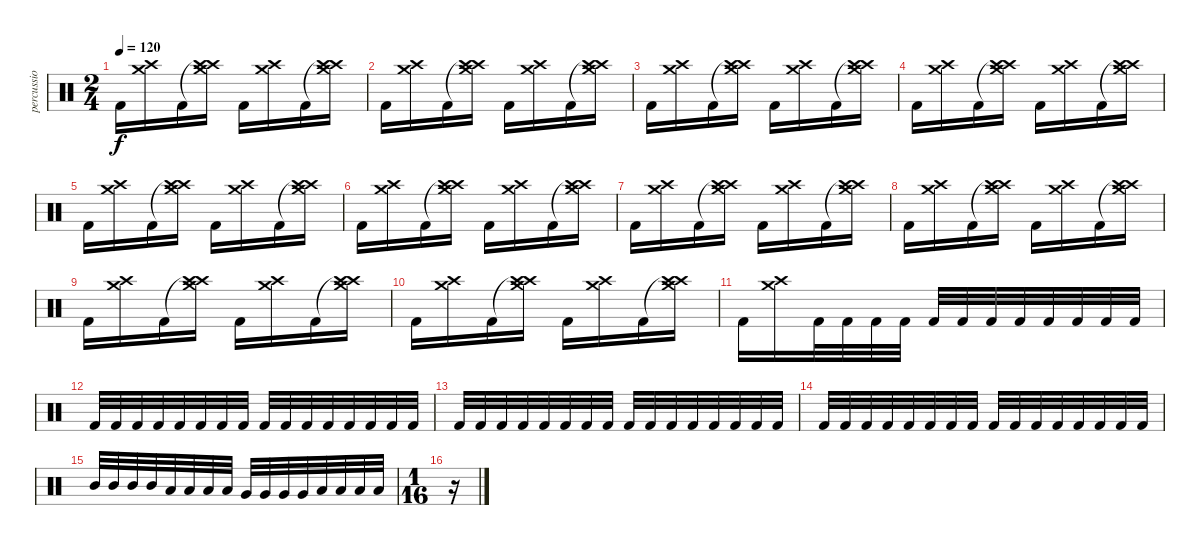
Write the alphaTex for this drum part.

\track (" percussion 1" " percussio") {instrument percussion}
\staff {score}
\articulation defaults
\ts (2 4)
\tempo 120
\clef neutral
\ks c "Kick (hit) 2".16{dy f}
("Crash high (hit)" "Crash medium (hit)").16 "Kick (hit) 2".16 ("Crash high (hit)"{t} "Crash high (hit)" "Crash medium (hit)").16 "Kick (hit) 2".16 ("Crash high (hit)" "Crash medium (hit)").16 "Kick (hit) 2".16 ("Crash high (hit)"{t} "Crash high (hit)" "Crash medium (hit)").16 |
"Kick (hit) 2".16 ("Crash high (hit)" "Crash medium (hit)").16 "Kick (hit) 2".16 ("Crash high (hit)"{t} "Crash high (hit)" "Crash medium (hit)").16 "Kick (hit) 2".16 ("Crash high (hit)" "Crash medium (hit)").16 "Kick (hit) 2".16 ("Crash high (hit)"{t} "Crash high (hit)" "Crash medium (hit)").16 |
"Kick (hit) 2".16 ("Crash high (hit)" "Crash medium (hit)").16 "Kick (hit) 2".16 ("Crash high (hit)"{t} "Crash high (hit)" "Crash medium (hit)").16 "Kick (hit) 2".16 ("Crash high (hit)" "Crash medium (hit)").16 "Kick (hit) 2".16 ("Crash high (hit)"{t} "Crash high (hit)" "Crash medium (hit)").16 |
"Kick (hit) 2".16 ("Crash high (hit)" "Crash medium (hit)").16 "Kick (hit) 2".16 ("Crash high (hit)"{t} "Crash high (hit)" "Crash medium (hit)").16 "Kick (hit) 2".16 ("Crash high (hit)" "Crash medium (hit)").16 "Kick (hit) 2".16 ("Crash high (hit)"{t} "Crash high (hit)" "Crash medium (hit)").16 |
"Kick (hit) 2".16 ("Crash high (hit)" "Crash medium (hit)").16 "Kick (hit) 2".16 ("Crash high (hit)"{t} "Crash high (hit)" "Crash medium (hit)").16 "Kick (hit) 2".16 ("Crash high (hit)" "Crash medium (hit)").16 "Kick (hit) 2".16 ("Crash high (hit)"{t} "Crash high (hit)" "Crash medium (hit)").16 |
"Kick (hit) 2".16 ("Crash high (hit)" "Crash medium (hit)").16 "Kick (hit) 2".16 ("Crash high (hit)"{t} "Crash high (hit)" "Crash medium (hit)").16 "Kick (hit) 2".16 ("Crash high (hit)" "Crash medium (hit)").16 "Kick (hit) 2".16 ("Crash high (hit)"{t} "Crash high (hit)" "Crash medium (hit)").16 |
"Kick (hit) 2".16 ("Crash high (hit)" "Crash medium (hit)").16 "Kick (hit) 2".16 ("Crash high (hit)"{t} "Crash high (hit)" "Crash medium (hit)").16 "Kick (hit) 2".16 ("Crash high (hit)" "Crash medium (hit)").16 "Kick (hit) 2".16 ("Crash high (hit)"{t} "Crash high (hit)" "Crash medium (hit)").16 |
"Kick (hit) 2".16 ("Crash high (hit)" "Crash medium (hit)").16 "Kick (hit) 2".16 ("Crash high (hit)"{t} "Crash high (hit)" "Crash medium (hit)").16 "Kick (hit) 2".16 ("Crash high (hit)" "Crash medium (hit)").16 "Kick (hit) 2".16 ("Crash high (hit)"{t} "Crash high (hit)" "Crash medium (hit)").16 |
"Kick (hit) 2".16 ("Crash high (hit)" "Crash medium (hit)").16 "Kick (hit) 2".16 ("Crash high (hit)"{t} "Crash high (hit)" "Crash medium (hit)").16 "Kick (hit) 2".16 ("Crash high (hit)" "Crash medium (hit)").16 "Kick (hit) 2".16 ("Crash high (hit)"{t} "Crash high (hit)" "Crash medium (hit)").16 |
"Kick (hit) 2".16 ("Crash high (hit)" "Crash medium (hit)").16 "Kick (hit) 2".16 ("Crash high (hit)"{t} "Crash high (hit)" "Crash medium (hit)").16 "Kick (hit) 2".16 ("Crash high (hit)" "Crash medium (hit)").16 "Kick (hit) 2".16 ("Crash high (hit)"{t} "Crash high (hit)" "Crash medium (hit)").16 |
"Kick (hit) 2".16 ("Crash high (hit)" "Crash medium (hit)").16 "Kick (hit) 2".32 "Kick (hit) 2".32 "Kick (hit) 2".32 "Kick (hit) 2".32 "Kick (hit) 2".32 "Kick (hit) 2".32 "Kick (hit) 2".32 "Kick (hit) 2".32 "Kick (hit) 2".32 "Kick (hit) 2".32 "Kick (hit) 2".32 "Kick (hit) 2".32 |
"Kick (hit) 2".32 "Kick (hit) 2".32 "Kick (hit) 2".32 "Kick (hit) 2".32 "Kick (hit) 2".32 "Kick (hit) 2".32 "Kick (hit) 2".32 "Kick (hit) 2".32 "Kick (hit) 2".32 "Kick (hit) 2".32 "Kick (hit) 2".32 "Kick (hit) 2".32 "Kick (hit) 2".32 "Kick (hit) 2".32 "Kick (hit) 2".32 "Kick (hit) 2".32 |
"Kick (hit) 2".32 "Kick (hit) 2".32 "Kick (hit) 2".32 "Kick (hit) 2".32 "Kick (hit) 2".32 "Kick (hit) 2".32 "Kick (hit) 2".32 "Kick (hit) 2".32 "Kick (hit) 2".32 "Kick (hit) 2".32 "Kick (hit) 2".32 "Kick (hit) 2".32 "Kick (hit) 2".32 "Kick (hit) 2".32 "Kick (hit) 2".32 "Kick (hit) 2".32 |
"Kick (hit) 2".32 "Kick (hit) 2".32 "Kick (hit) 2".32 "Kick (hit) 2".32 "Kick (hit) 2".32 "Kick (hit) 2".32 "Kick (hit) 2".32 "Kick (hit) 2".32 "Kick (hit) 2".32 "Kick (hit) 2".32 "Kick (hit) 2".32 "Kick (hit) 2".32 "Kick (hit) 2".32 "Kick (hit) 2".32 "Kick (hit) 2".32 "Kick (hit) 2".32 |
"Mid Tom (hit)".32 "Mid Tom (hit)".32 "Mid Tom (hit)".32 "Mid Tom (hit)".32 "Low Tom (hit)".32 "Low Tom (hit)".32 "Low Tom (hit)".32 "Low Tom (hit)".32 "Very Low Tom (hit)".32 "Very Low Tom (hit)".32 "Very Low Tom (hit)".32 "Very Low Tom (hit)".32 "Low Floor Tom (hit)".32 "Low Floor Tom (hit)".32 "Low Floor Tom (hit)".32 "Low Floor Tom (hit)".32 |
\ts (1 16)
r.16
